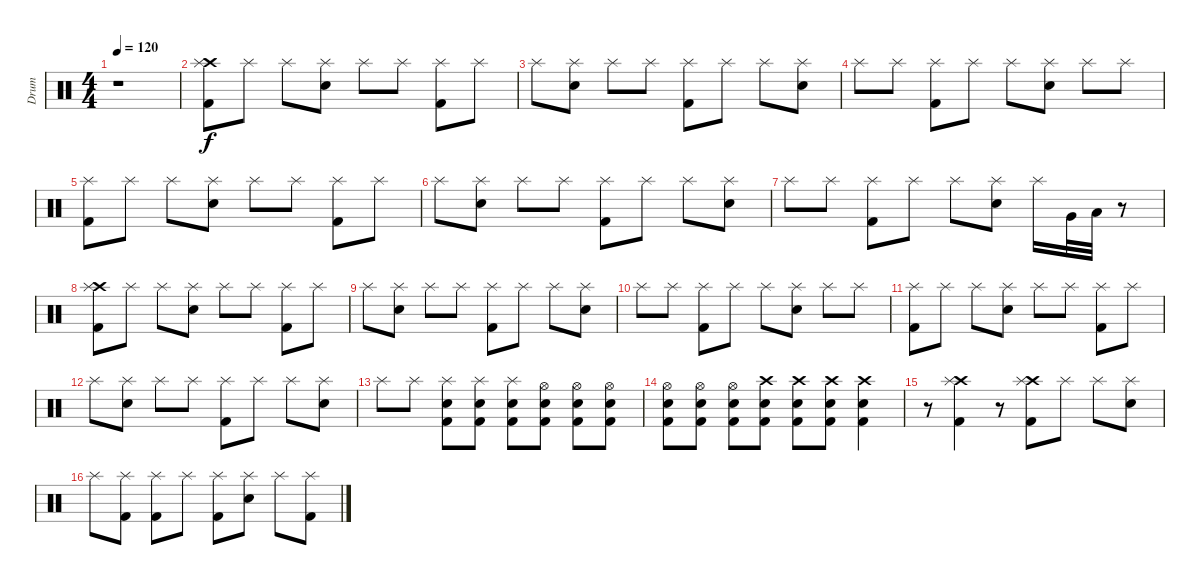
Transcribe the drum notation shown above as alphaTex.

\track ("Drum" "Drum") {instrument percussion}
\staff {score}
\articulation defaults
\ts (4 4)
\tempo 120
\clef neutral
\ks c
r.1{dy f} |
("Crash high (hit)" "Splash (hit)" "Kick (hit) 2").8 "Splash (hit)".8 "Splash (hit)".8 ("Splash (hit)" "Snare (hit) 2").8 "Splash (hit)".8 "Splash (hit)".8 ("Splash (hit)" "Kick (hit) 2").8 "Splash (hit)".8 |
"Splash (hit)".8 ("Splash (hit)" "Snare (hit) 2").8 "Splash (hit)".8 "Splash (hit)".8 ("Splash (hit)" "Kick (hit) 2").8 "Splash (hit)".8 "Splash (hit)".8 ("Splash (hit)" "Snare (hit) 2").8 |
"Splash (hit)".8 "Splash (hit)".8 ("Splash (hit)" "Kick (hit) 2").8 "Splash (hit)".8 "Splash (hit)".8 ("Splash (hit)" "Snare (hit) 2").8 "Splash (hit)".8 "Splash (hit)".8 |
("Splash (hit)" "Kick (hit) 2").8 "Splash (hit)".8 "Splash (hit)".8 ("Splash (hit)" "Snare (hit) 2").8 "Splash (hit)".8 "Splash (hit)".8 ("Splash (hit)" "Kick (hit) 2").8 "Splash (hit)".8 |
"Splash (hit)".8 ("Splash (hit)" "Snare (hit) 2").8 "Splash (hit)".8 "Splash (hit)".8 ("Splash (hit)" "Kick (hit) 2").8 "Splash (hit)".8 "Splash (hit)".8 ("Splash (hit)" "Snare (hit) 2").8 |
"Splash (hit)".8 "Splash (hit)".8 ("Splash (hit)" "Kick (hit) 2").8 "Splash (hit)".8 "Splash (hit)".8 ("Splash (hit)" "Snare (hit) 2").8 "Splash (hit)".16 "Very Low Tom (hit)".32 "Low Floor Tom (hit)".32 r.8 |
("Crash high (hit)" "Splash (hit)" "Kick (hit) 2").8 "Splash (hit)".8 "Splash (hit)".8 ("Splash (hit)" "Snare (hit) 2").8 "Splash (hit)".8 "Splash (hit)".8 ("Splash (hit)" "Kick (hit) 2").8 "Splash (hit)".8 |
"Splash (hit)".8 ("Splash (hit)" "Snare (hit) 2").8 "Splash (hit)".8 "Splash (hit)".8 ("Splash (hit)" "Kick (hit) 2").8 "Splash (hit)".8 "Splash (hit)".8 ("Splash (hit)" "Snare (hit) 2").8 |
"Splash (hit)".8 "Splash (hit)".8 ("Splash (hit)" "Kick (hit) 2").8 "Splash (hit)".8 "Splash (hit)".8 ("Splash (hit)" "Snare (hit) 2").8 "Splash (hit)".8 "Splash (hit)".8 |
("Splash (hit)" "Kick (hit) 2").8 "Splash (hit)".8 "Splash (hit)".8 ("Splash (hit)" "Snare (hit) 2").8 "Splash (hit)".8 "Splash (hit)".8 ("Splash (hit)" "Kick (hit) 2").8 "Splash (hit)".8 |
"Splash (hit)".8 ("Splash (hit)" "Snare (hit) 2").8 "Splash (hit)".8 "Splash (hit)".8 ("Splash (hit)" "Kick (hit) 2").8 "Splash (hit)".8 "Splash (hit)".8 ("Splash (hit)" "Snare (hit) 2").8 |
"Splash (hit)".8 "Splash (hit)".8 ("Splash (hit)" "Snare (hit) 2" "Kick (hit) 2").8 ("Splash (hit)" "Snare (hit) 2" "Kick (hit) 2").8 ("Splash (hit)" "Snare (hit) 2" "Kick (hit) 2").8 ("Hi-Hat (open)" "Snare (hit) 2" "Kick (hit) 2").8 ("Hi-Hat (open)" "Snare (hit) 2" "Kick (hit) 2").8 ("Hi-Hat (open)" "Snare (hit) 2" "Kick (hit) 2").8 |
("Hi-Hat (open)" "Snare (hit) 2" "Kick (hit) 2").8 ("Hi-Hat (open)" "Snare (hit) 2" "Kick (hit) 2").8 ("Hi-Hat (open)" "Snare (hit) 2" "Kick (hit) 2").8 ("Crash high (hit)" "Snare (hit) 2" "Kick (hit) 2").8 ("Crash high (hit)" "Snare (hit) 2" "Kick (hit) 2").8 ("Crash high (hit)" "Snare (hit) 2" "Kick (hit) 2").8 ("Crash high (hit)" "Snare (hit) 2" "Kick (hit) 2").4 |
r.8 ("Crash high (hit)" "Splash (hit)" "Kick (hit) 2").4 r.8 ("Crash high (hit)" "Splash (hit)" "Kick (hit) 2").8 "Splash (hit)".8 "Splash (hit)".8 ("Splash (hit)" "Snare (hit) 2").8 |
"Splash (hit)".8 ("Splash (hit)" "Kick (hit) 2").8 ("Splash (hit)" "Kick (hit) 2").8 "Splash (hit)".8 ("Splash (hit)" "Kick (hit) 2").8 ("Splash (hit)" "Snare (hit) 2").8 "Splash (hit)".8 ("Splash (hit)" "Kick (hit) 2").8
